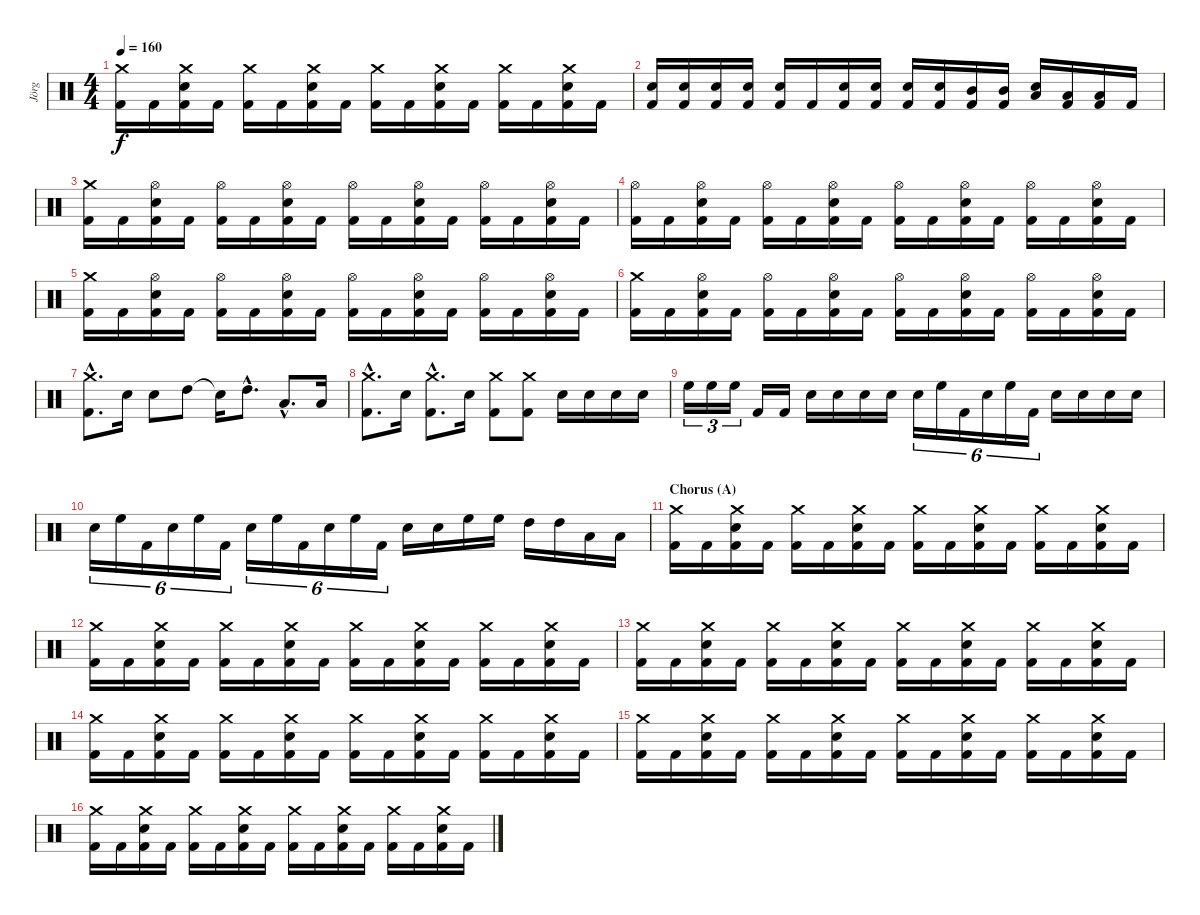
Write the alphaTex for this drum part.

\track ("Jörg" "Jörg") {instrument percussion}
\staff {score}
\articulation defaults
\ts (4 4)
\tempo 160
\clef neutral
\ks c
("Crash medium (hit)" "Kick (hit) 2").16{dy f} "Kick (hit) 2".16 ("Crash medium (hit)" "Snare (hit) 2" "Kick (hit) 2").16 "Kick (hit) 2".16 ("Crash medium (hit)" "Kick (hit) 2").16 "Kick (hit) 2".16 ("Crash medium (hit)" "Snare (hit) 2" "Kick (hit) 2").16 "Kick (hit) 2".16 ("Crash medium (hit)" "Kick (hit) 2").16 "Kick (hit) 2".16 ("Crash medium (hit)" "Snare (hit) 2" "Kick (hit) 2").16 "Kick (hit) 2".16 ("Crash medium (hit)" "Kick (hit) 2").16 "Kick (hit) 2".16 ("Crash medium (hit)" "Snare (hit) 2" "Kick (hit) 2").16 "Kick (hit) 2".16 |
("Snare (hit) 2" "Kick (hit) 2").16 ("Snare (hit) 2" "Kick (hit) 2").16 ("Snare (hit) 2" "Kick (hit) 2").16 ("Snare (hit) 2" "Kick (hit) 2").16 ("Snare (hit) 2" "Kick (hit) 2").16 "Kick (hit) 2".16 ("Snare (hit) 2" "Kick (hit) 2").16 ("Snare (hit) 2" "Kick (hit) 2").16 ("Snare (hit) 2" "Kick (hit) 2").16 ("Snare (hit) 2" "Kick (hit) 2").16 ("Mid Tom (hit)" "Kick (hit) 2").16 ("Mid Tom (hit)" "Kick (hit) 2").16 ("Low Tom (hit)" "Snare (hit) 2").16 ("Low Tom (hit)" "Kick (hit) 2").16 ("Low Tom (hit)" "Kick (hit) 2").16 "Kick (hit) 2".16 |
("Crash medium (hit)" "Kick (hit) 2").16 "Kick (hit) 2".16 ("Hi-Hat (open)" "Snare (hit) 2" "Kick (hit) 2").16 "Kick (hit) 2".16 ("Hi-Hat (open)" "Kick (hit) 2").16 "Kick (hit) 2".16 ("Hi-Hat (open)" "Snare (hit) 2" "Kick (hit) 2").16 "Kick (hit) 2".16 ("Hi-Hat (open)" "Kick (hit) 2").16 "Kick (hit) 2".16 ("Hi-Hat (open)" "Snare (hit) 2" "Kick (hit) 2").16 "Kick (hit) 2".16 ("Hi-Hat (open)" "Kick (hit) 2").16 "Kick (hit) 2".16 ("Hi-Hat (open)" "Snare (hit) 2" "Kick (hit) 2").16 "Kick (hit) 2".16 |
("Hi-Hat (open)" "Kick (hit) 2").16 "Kick (hit) 2".16 ("Hi-Hat (open)" "Snare (hit) 2" "Kick (hit) 2").16 "Kick (hit) 2".16 ("Hi-Hat (open)" "Kick (hit) 2").16 "Kick (hit) 2".16 ("Hi-Hat (open)" "Snare (hit) 2" "Kick (hit) 2").16 "Kick (hit) 2".16 ("Hi-Hat (open)" "Kick (hit) 2").16 "Kick (hit) 2".16 ("Hi-Hat (open)" "Snare (hit) 2" "Kick (hit) 2").16 "Kick (hit) 2".16 ("Hi-Hat (open)" "Kick (hit) 2").16 "Kick (hit) 2".16 ("Hi-Hat (open)" "Snare (hit) 2" "Kick (hit) 2").16 "Kick (hit) 2".16 |
("Crash medium (hit)" "Kick (hit) 2").16 "Kick (hit) 2".16 ("Hi-Hat (open)" "Snare (hit) 2" "Kick (hit) 2").16 "Kick (hit) 2".16 ("Hi-Hat (open)" "Kick (hit) 2").16 "Kick (hit) 2".16 ("Hi-Hat (open)" "Snare (hit) 2" "Kick (hit) 2").16 "Kick (hit) 2".16 ("Hi-Hat (open)" "Kick (hit) 2").16 "Kick (hit) 2".16 ("Hi-Hat (open)" "Snare (hit) 2" "Kick (hit) 2").16 "Kick (hit) 2".16 ("Hi-Hat (open)" "Kick (hit) 2").16 "Kick (hit) 2".16 ("Hi-Hat (open)" "Snare (hit) 2" "Kick (hit) 2").16 "Kick (hit) 2".16 |
("Crash medium (hit)" "Kick (hit) 2").16 "Kick (hit) 2".16 ("Hi-Hat (open)" "Snare (hit) 2" "Kick (hit) 2").16 "Kick (hit) 2".16 ("Hi-Hat (open)" "Kick (hit) 2").16 "Kick (hit) 2".16 ("Hi-Hat (open)" "Snare (hit) 2" "Kick (hit) 2").16 "Kick (hit) 2".16 ("Hi-Hat (open)" "Kick (hit) 2").16 "Kick (hit) 2".16 ("Hi-Hat (open)" "Snare (hit) 2" "Kick (hit) 2").16 "Kick (hit) 2".16 ("Hi-Hat (open)" "Kick (hit) 2").16 "Kick (hit) 2".16 ("Hi-Hat (open)" "Snare (hit) 2" "Kick (hit) 2").16 "Kick (hit) 2".16 |
("Kick (hit) 2"{hac} "Crash medium (hit)"{hac}).8{d} "Snare (hit) 2".16 "Snare (hit) 2".8 "High Tom (hit)".8 "Snare (hit)"{t}.16 "High Tom (hit)"{hac}.8{d} "Low Tom (hit)"{hac}.8{d} "Low Floor Tom (hit)".16 |
("Kick (hit) 2"{hac} "Crash medium (hit)"{hac}).8{d} "Snare (hit) 2".16 ("Kick (hit) 2"{hac} "Crash medium (hit)"{hac}).8{d} "Snare (hit) 2".16 ("Kick (hit) 2" "Crash medium (hit)").8 ("Kick (hit) 2" "Crash medium (hit)").8 "Snare (hit) 2".16 "Snare (hit) 2".16 "Snare (hit) 2".16 "Snare (hit) 2".16 |
"High Floor Tom (hit)".16{tu (3 2)} "High Floor Tom (hit)".16{tu (3 2)} "High Floor Tom (hit)".16{tu (3 2)} "Kick (hit) 2".16 "Kick (hit) 2".16 "Snare (hit) 2".16 "Snare (hit) 2".16 "Snare (hit) 2".16 "Snare (hit) 2".16 "Snare (hit) 2".16{tu (6 4)} "High Floor Tom (hit)".16{tu (6 4)} "Kick (hit) 2".16{tu (6 4)} "Snare (hit) 2".16{tu (6 4)} "High Floor Tom (hit)".16{tu (6 4)} "Kick (hit) 2".16{tu (6 4)} "Snare (hit) 2".16 "Snare (hit) 2".16 "Snare (hit) 2".16 "Snare (hit) 2".16 |
"Snare (hit) 2".16{tu (6 4)} "High Floor Tom (hit)".16{tu (6 4)} "Kick (hit) 2".16{tu (6 4)} "Snare (hit) 2".16{tu (6 4)} "High Floor Tom (hit)".16{tu (6 4)} "Kick (hit) 2".16{tu (6 4)} "Snare (hit) 2".16{tu (6 4)} "High Floor Tom (hit)".16{tu (6 4)} "Kick (hit) 2".16{tu (6 4)} "Snare (hit) 2".16{tu (6 4)} "High Floor Tom (hit)".16{tu (6 4)} "Kick (hit) 2".16{tu (6 4)} "Snare (hit) 2".16 "Snare (hit) 2".16 "High Floor Tom (hit)".16 "High Floor Tom (hit)".16 "High Tom (hit)".16 "High Tom (hit)".16 "Low Tom (hit)".16 "Low Tom (hit)".16 |
\section ("" "Chorus (A)")
("Crash medium (hit)" "Kick (hit) 2").16 "Kick (hit) 2".16 ("Crash medium (hit)" "Snare (hit) 2" "Kick (hit) 2").16 "Kick (hit) 2".16 ("Crash medium (hit)" "Kick (hit) 2").16 "Kick (hit) 2".16 ("Crash medium (hit)" "Snare (hit) 2" "Kick (hit) 2").16 "Kick (hit) 2".16 ("Crash medium (hit)" "Kick (hit) 2").16 "Kick (hit) 2".16 ("Crash medium (hit)" "Snare (hit) 2" "Kick (hit) 2").16 "Kick (hit) 2".16 ("Crash medium (hit)" "Kick (hit) 2").16 "Kick (hit) 2".16 ("Crash medium (hit)" "Snare (hit) 2" "Kick (hit) 2").16 "Kick (hit) 2".16 |
("Crash medium (hit)" "Kick (hit) 2").16 "Kick (hit) 2".16 ("Crash medium (hit)" "Snare (hit) 2" "Kick (hit) 2").16 "Kick (hit) 2".16 ("Crash medium (hit)" "Kick (hit) 2").16 "Kick (hit) 2".16 ("Crash medium (hit)" "Snare (hit) 2" "Kick (hit) 2").16 "Kick (hit) 2".16 ("Crash medium (hit)" "Kick (hit) 2").16 "Kick (hit) 2".16 ("Crash medium (hit)" "Snare (hit) 2" "Kick (hit) 2").16 "Kick (hit) 2".16 ("Crash medium (hit)" "Kick (hit) 2").16 "Kick (hit) 2".16 ("Crash medium (hit)" "Snare (hit) 2" "Kick (hit) 2").16 "Kick (hit) 2".16 |
("Crash medium (hit)" "Kick (hit) 2").16 "Kick (hit) 2".16 ("Crash medium (hit)" "Snare (hit) 2" "Kick (hit) 2").16 "Kick (hit) 2".16 ("Crash medium (hit)" "Kick (hit) 2").16 "Kick (hit) 2".16 ("Crash medium (hit)" "Snare (hit) 2" "Kick (hit) 2").16 "Kick (hit) 2".16 ("Crash medium (hit)" "Kick (hit) 2").16 "Kick (hit) 2".16 ("Crash medium (hit)" "Snare (hit) 2" "Kick (hit) 2").16 "Kick (hit) 2".16 ("Crash medium (hit)" "Kick (hit) 2").16 "Kick (hit) 2".16 ("Crash medium (hit)" "Snare (hit) 2" "Kick (hit) 2").16 "Kick (hit) 2".16 |
("Crash medium (hit)" "Kick (hit) 2").16 "Kick (hit) 2".16 ("Crash medium (hit)" "Snare (hit) 2" "Kick (hit) 2").16 "Kick (hit) 2".16 ("Crash medium (hit)" "Kick (hit) 2").16 "Kick (hit) 2".16 ("Crash medium (hit)" "Snare (hit) 2" "Kick (hit) 2").16 "Kick (hit) 2".16 ("Crash medium (hit)" "Kick (hit) 2").16 "Kick (hit) 2".16 ("Crash medium (hit)" "Snare (hit) 2" "Kick (hit) 2").16 "Kick (hit) 2".16 ("Crash medium (hit)" "Kick (hit) 2").16 "Kick (hit) 2".16 ("Crash medium (hit)" "Snare (hit) 2" "Kick (hit) 2").16 "Kick (hit) 2".16 |
("Crash medium (hit)" "Kick (hit) 2").16 "Kick (hit) 2".16 ("Crash medium (hit)" "Snare (hit) 2" "Kick (hit) 2").16 "Kick (hit) 2".16 ("Crash medium (hit)" "Kick (hit) 2").16 "Kick (hit) 2".16 ("Crash medium (hit)" "Snare (hit) 2" "Kick (hit) 2").16 "Kick (hit) 2".16 ("Crash medium (hit)" "Kick (hit) 2").16 "Kick (hit) 2".16 ("Crash medium (hit)" "Snare (hit) 2" "Kick (hit) 2").16 "Kick (hit) 2".16 ("Crash medium (hit)" "Kick (hit) 2").16 "Kick (hit) 2".16 ("Crash medium (hit)" "Snare (hit) 2" "Kick (hit) 2").16 "Kick (hit) 2".16 |
("Crash medium (hit)" "Kick (hit) 2").16 "Kick (hit) 2".16 ("Crash medium (hit)" "Snare (hit) 2" "Kick (hit) 2").16 "Kick (hit) 2".16 ("Crash medium (hit)" "Kick (hit) 2").16 "Kick (hit) 2".16 ("Crash medium (hit)" "Snare (hit) 2" "Kick (hit) 2").16 "Kick (hit) 2".16 ("Crash medium (hit)" "Kick (hit) 2").16 "Kick (hit) 2".16 ("Crash medium (hit)" "Snare (hit) 2" "Kick (hit) 2").16 "Kick (hit) 2".16 ("Crash medium (hit)" "Kick (hit) 2").16 "Kick (hit) 2".16 ("Crash medium (hit)" "Snare (hit) 2" "Kick (hit) 2").16 "Kick (hit) 2".16
